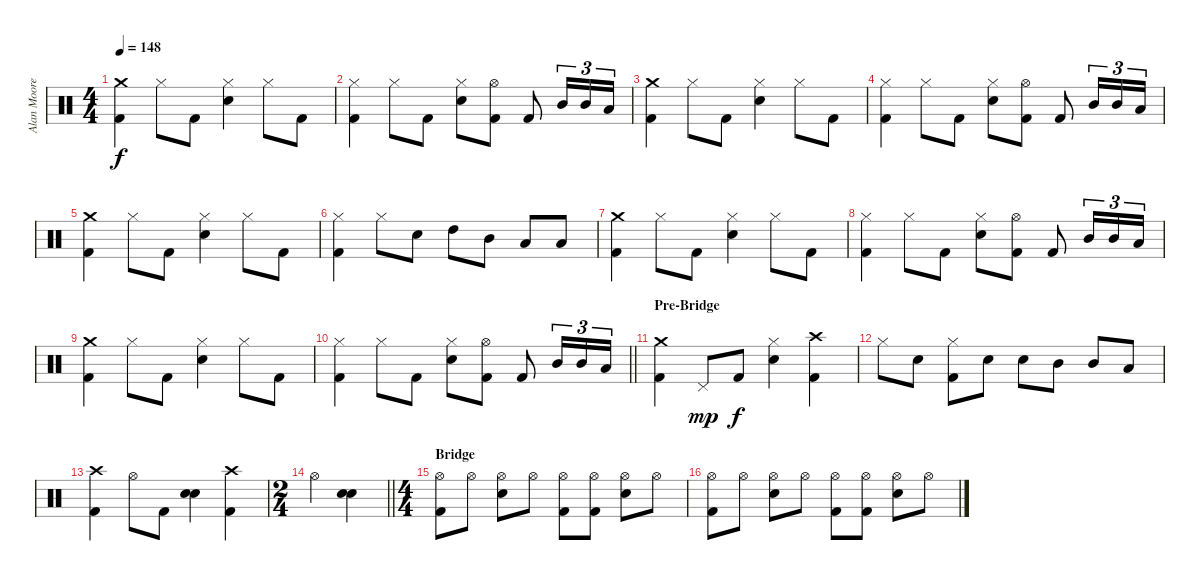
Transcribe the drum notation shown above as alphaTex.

\track ("Alan Moore" "Alan Moore") {instrument percussion}
\staff {score}
\articulation defaults
\ts (4 4)
\tempo 148
\clef neutral
\ks c
("Crash medium (hit)" "Kick (hit) 2").4{dy f} "Hi-Hat (closed)".8 "Kick (hit) 2".8 ("Hi-Hat (closed)" "Snare (hit) 2").4 "Hi-Hat (closed)".8 "Kick (hit) 2".8 |
("Hi-Hat (closed)" "Kick (hit) 2").4 "Hi-Hat (closed)".8 "Kick (hit) 2".8 ("Hi-Hat (closed)" "Snare (hit) 2").8 ("Hi-Hat (open)" "Kick (hit) 2").8 "Kick (hit) 2".8 "Mid Tom (hit)".16{tu (3 2)} "Mid Tom (hit)".16{tu (3 2)} "Low Tom (hit)".16{tu (3 2)} |
("Crash medium (hit)" "Kick (hit) 2").4 "Hi-Hat (closed)".8 "Kick (hit) 2".8 ("Hi-Hat (closed)" "Snare (hit) 2").4 "Hi-Hat (closed)".8 "Kick (hit) 2".8 |
("Hi-Hat (closed)" "Kick (hit) 2").4 "Hi-Hat (closed)".8 "Kick (hit) 2".8 ("Hi-Hat (closed)" "Snare (hit) 2").8 ("Hi-Hat (open)" "Kick (hit) 2").8 "Kick (hit) 2".8 "Mid Tom (hit)".16{tu (3 2)} "Mid Tom (hit)".16{tu (3 2)} "Low Tom (hit)".16{tu (3 2)} |
("Crash medium (hit)" "Kick (hit) 2").4 "Hi-Hat (closed)".8 "Kick (hit) 2".8 ("Hi-Hat (closed)" "Snare (hit) 2").4 "Hi-Hat (closed)".8 "Kick (hit) 2".8 |
("Hi-Hat (closed)" "Kick (hit) 2").4 "Hi-Hat (closed)".8 "Snare (hit) 2".8 "High Tom (hit)".8 "Mid Tom (hit)".8 "Low Tom (hit)".8 "Low Floor Tom (hit)".8 |
("Crash medium (hit)" "Kick (hit) 2").4 "Hi-Hat (closed)".8 "Kick (hit) 2".8 ("Hi-Hat (closed)" "Snare (hit) 2").4 "Hi-Hat (closed)".8 "Kick (hit) 2".8 |
("Hi-Hat (closed)" "Kick (hit) 2").4 "Hi-Hat (closed)".8 "Kick (hit) 2".8 ("Hi-Hat (closed)" "Snare (hit) 2").8 ("Hi-Hat (open)" "Kick (hit) 2").8 "Kick (hit) 2".8 "Mid Tom (hit)".16{tu (3 2)} "Mid Tom (hit)".16{tu (3 2)} "Low Tom (hit)".16{tu (3 2)} |
("Crash medium (hit)" "Kick (hit) 2").4 "Hi-Hat (closed)".8 "Kick (hit) 2".8 ("Hi-Hat (closed)" "Snare (hit) 2").4 "Hi-Hat (closed)".8 "Kick (hit) 2".8 |
\barLineRight lightlight
("Hi-Hat (closed)" "Kick (hit) 2").4 "Hi-Hat (closed)".8 "Kick (hit) 2".8 ("Hi-Hat (closed)" "Snare (hit) 2").8 ("Hi-Hat (open)" "Kick (hit) 2").8 "Kick (hit) 2".8 "Mid Tom (hit)".16{tu (3 2)} "Mid Tom (hit)".16{tu (3 2)} "Low Tom (hit)".16{tu (3 2)} |
\section ("" "Pre-Bridge")
("Crash medium (hit)" "Kick (hit) 2").4 "Pedal Hi-Hat (hit)".8{dy mp} "Kick (hit) 2".8{dy f} ("Hi-Hat (closed)" "Snare (hit) 2").4 ("Crash high (hit)" "Kick (hit) 2").4 |
"Hi-Hat (closed)".8 "Snare (hit) 2".8 ("Hi-Hat (closed)" "Kick (hit) 2").8 "Snare (hit) 2".8 "Snare (hit) 2".8 "Mid Tom (hit)".8 "Mid Tom (hit)".8 "Low Tom (hit)".8 |
("Crash high (hit)" "Kick (hit) 2").4 "Hi-Hat (open)".8 "Kick (hit) 2".8 ("Snare (hit) 2" "Snare (hit) 2").4 ("Crash high (hit)" "Kick (hit) 2").4 |
\ts (2 4)
\barLineRight lightlight "Hi-Hat (open)".4
("Snare (hit) 2" "Snare (hit) 2").4 |
\ts (4 4)
\section ("" "Bridge")
("Hi-Hat (open)" "Kick (hit) 2").8 "Hi-Hat (open)".8 ("Hi-Hat (open)" "Snare (hit) 2").8 "Hi-Hat (open)".8 ("Hi-Hat (open)" "Kick (hit) 2").8 ("Hi-Hat (open)" "Kick (hit) 2").8 ("Hi-Hat (open)" "Snare (hit) 2").8 "Hi-Hat (open)".8 |
("Hi-Hat (open)" "Kick (hit) 2").8 "Hi-Hat (open)".8 ("Hi-Hat (open)" "Snare (hit) 2").8 "Hi-Hat (open)".8 ("Hi-Hat (open)" "Kick (hit) 2").8 ("Hi-Hat (open)" "Kick (hit) 2").8 ("Hi-Hat (open)" "Snare (hit) 2").8 "Hi-Hat (open)".8
